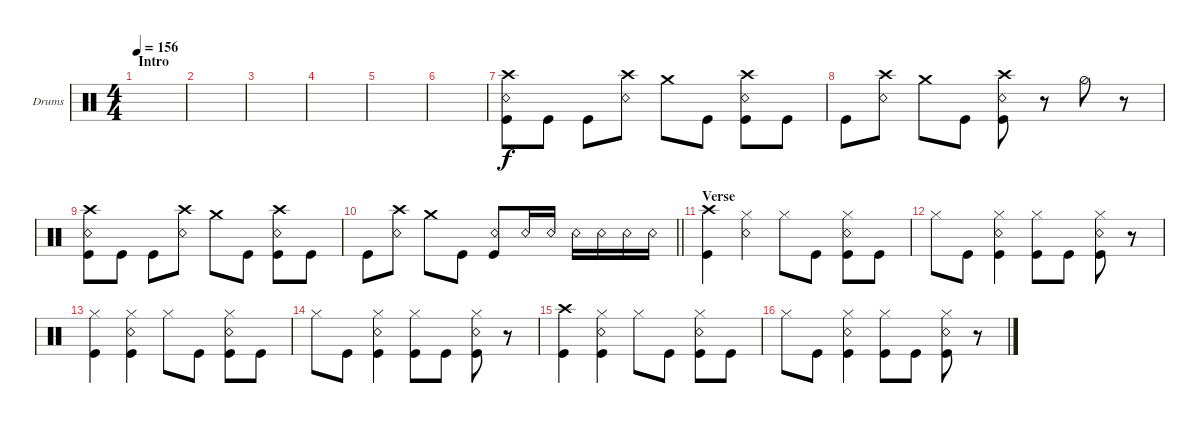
\bracketExtendMode groupsimilarinstruments
\firstSystemTrackNameOrientation horizontal
\otherSystemsTrackNameOrientation horizontal
\track ("Drums" "Drums") {instrument percussion}
\staff {score}
\articulation defaults
\ts (4 4)
\beaming (8 2 2 2 2)
\section ("" "Intro")
\tempo 156
\clef neutral
\ks c
|
|
|
|
|
|
("Kick (hit)" "Snare (rim shot)" "Crash high (hit)").8 "Kick (hit)".8 "Kick (hit)".8 ("Snare (rim shot)" "Crash high (hit)").8 "Crash medium (hit)".8 "Kick (hit)".8 ("Kick (hit)" "Snare (rim shot)" "Crash high (hit)").8 "Kick (hit)".8 |
"Kick (hit)".8 ("Snare (rim shot)" "Crash high (hit)").8 "Crash medium (hit)".8 "Kick (hit)".8 ("Kick (hit)" "Snare (rim shot)" "Crash high (hit)").8 r.8 "Hi-Hat (half)".8 r.8 |
("Kick (hit)" "Snare (rim shot)" "Crash high (hit)").8 "Kick (hit)".8 "Kick (hit)".8 ("Snare (rim shot)" "Crash high (hit)").8 "Crash medium (hit)".8 "Kick (hit)".8 ("Kick (hit)" "Snare (rim shot)" "Crash high (hit)").8 "Kick (hit)".8 |
\barLineRight lightlight "Kick (hit)".8
("Snare (rim shot)" "Crash high (hit)").8 "Crash medium (hit)".8 "Kick (hit)".8 ("Kick (hit)" "Snare (rim shot)").8 "Snare (rim shot)".16 "Snare (rim shot)".16 "Snare (rim shot)".16 "Snare (rim shot)".16 "Snare (rim shot)".16 "Snare (rim shot)".16 |
\section ("" "Verse")
("Kick (hit)" "Crash high (hit)").4 ("Hi-Hat (closed)" "Snare (rim shot)").4 "Hi-Hat (closed)".8 "Kick (hit)".8 ("Hi-Hat (closed)" "Snare (rim shot)" "Kick (hit)").8 "Kick (hit)".8 |
"Hi-Hat (closed)".8 "Kick (hit)".8 ("Hi-Hat (closed)" "Snare (rim shot)" "Kick (hit)").4 ("Hi-Hat (closed)" "Kick (hit)").8 "Kick (hit)".8 ("Hi-Hat (closed)" "Snare (rim shot)" "Kick (hit)").8 r.8 |
("Kick (hit)" "Hi-Hat (closed)").4 ("Hi-Hat (closed)" "Snare (rim shot)" "Kick (hit)").4 "Hi-Hat (closed)".8 "Kick (hit)".8 ("Hi-Hat (closed)" "Snare (rim shot)" "Kick (hit)").8 "Kick (hit)".8 |
"Hi-Hat (closed)".8 "Kick (hit)".8 ("Hi-Hat (closed)" "Snare (rim shot)" "Kick (hit)").4 ("Hi-Hat (closed)" "Kick (hit)").8 "Kick (hit)".8 ("Hi-Hat (closed)" "Snare (rim shot)" "Kick (hit)").8 r.8 |
("Kick (hit)" "Crash high (hit)").4 ("Hi-Hat (closed)" "Snare (rim shot)" "Kick (hit)").4 "Hi-Hat (closed)".8 "Kick (hit)".8 ("Hi-Hat (closed)" "Snare (rim shot)" "Kick (hit)").8 "Kick (hit)".8 |
"Hi-Hat (closed)".8 "Kick (hit)".8 ("Hi-Hat (closed)" "Snare (rim shot)" "Kick (hit)").4 ("Hi-Hat (closed)" "Kick (hit)").8 "Kick (hit)".8 ("Hi-Hat (closed)" "Snare (rim shot)" "Kick (hit)").8 r.8
